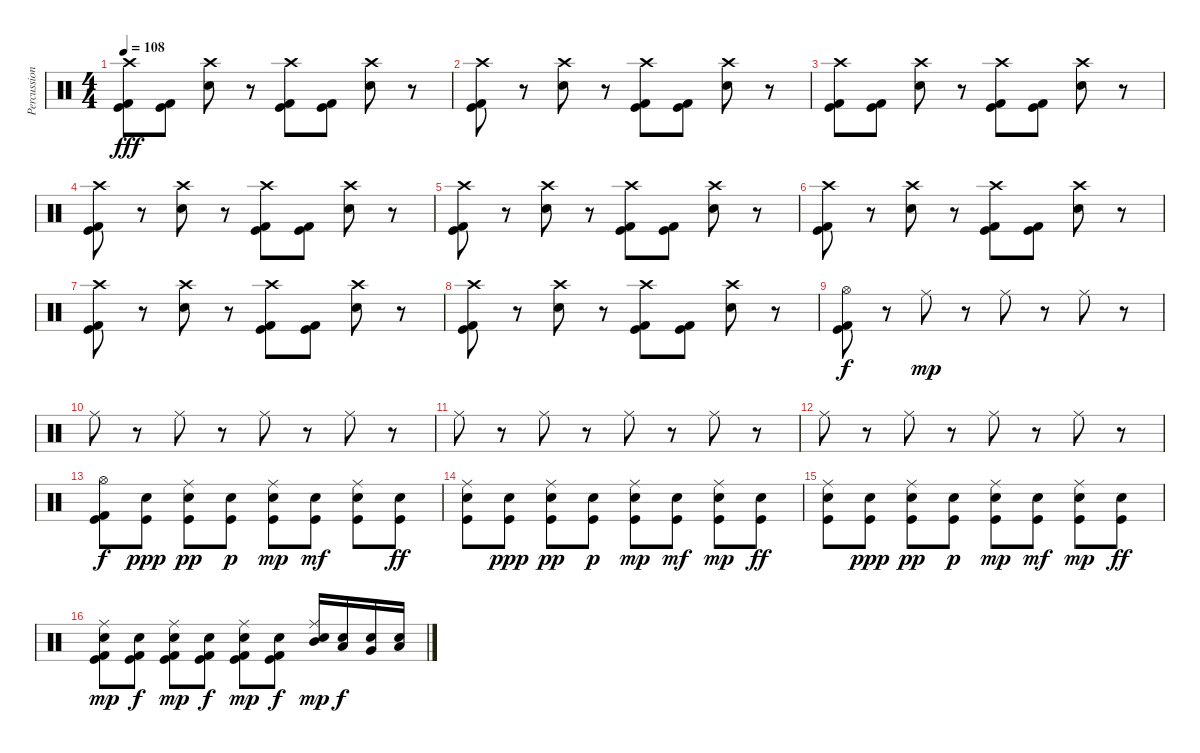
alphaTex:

\track ("Percussion" "Percussion") {instrument percussion}
\staff {score}
\articulation defaults
\ts (4 4)
\tempo 108
\clef neutral
\ks c
("Crash high (hit)" "Kick (hit) 2" "Kick (hit)").8{dy fff} ("Kick (hit) 2" "Kick (hit)").8 ("Crash high (hit)" "Snare (hit) 2").8 r.8 ("Crash high (hit)" "Kick (hit) 2" "Kick (hit)").8 ("Kick (hit) 2" "Kick (hit)").8 ("Crash high (hit)" "Snare (hit) 2").8 r.8 |
("Crash high (hit)" "Kick (hit) 2" "Kick (hit)").8 r.8 ("Crash high (hit)" "Snare (hit) 2").8 r.8 ("Crash high (hit)" "Kick (hit) 2" "Kick (hit)").8 ("Kick (hit) 2" "Kick (hit)").8 ("Crash high (hit)" "Snare (hit) 2").8 r.8 |
("Crash high (hit)" "Kick (hit) 2" "Kick (hit)").8 ("Kick (hit) 2" "Kick (hit)").8 ("Crash high (hit)" "Snare (hit) 2").8 r.8 ("Crash high (hit)" "Kick (hit) 2" "Kick (hit)").8 ("Kick (hit) 2" "Kick (hit)").8 ("Crash high (hit)" "Snare (hit) 2").8 r.8 |
("Crash high (hit)" "Kick (hit) 2" "Kick (hit)").8 r.8 ("Crash high (hit)" "Snare (hit) 2").8 r.8 ("Crash high (hit)" "Kick (hit) 2" "Kick (hit)").8 ("Kick (hit) 2" "Kick (hit)").8 ("Crash high (hit)" "Snare (hit) 2").8 r.8 |
("Crash high (hit)" "Kick (hit) 2" "Kick (hit)").8 r.8 ("Crash high (hit)" "Snare (hit) 2").8 r.8 ("Crash high (hit)" "Kick (hit) 2" "Kick (hit)").8 ("Kick (hit) 2" "Kick (hit)").8 ("Crash high (hit)" "Snare (hit) 2").8 r.8 |
("Crash high (hit)" "Kick (hit) 2" "Kick (hit)").8 r.8 ("Crash high (hit)" "Snare (hit) 2").8 r.8 ("Crash high (hit)" "Kick (hit) 2" "Kick (hit)").8 ("Kick (hit) 2" "Kick (hit)").8 ("Crash high (hit)" "Snare (hit) 2").8 r.8 |
("Crash high (hit)" "Kick (hit) 2" "Kick (hit)").8 r.8 ("Crash high (hit)" "Snare (hit) 2").8 r.8 ("Crash high (hit)" "Kick (hit) 2" "Kick (hit)").8 ("Kick (hit) 2" "Kick (hit)").8 ("Crash high (hit)" "Snare (hit) 2").8 r.8 |
("Crash high (hit)" "Kick (hit) 2" "Kick (hit)").8 r.8 ("Crash high (hit)" "Snare (hit) 2").8 r.8 ("Crash high (hit)" "Kick (hit) 2" "Kick (hit)").8 ("Kick (hit) 2" "Kick (hit)").8 ("Crash high (hit)" "Snare (hit) 2").8 r.8 |
("Hi-Hat (open)" "Kick (hit) 2" "Kick (hit)").8{dy f} r.8 "Ride (middle)".8{dy mp} r.8 "Ride (middle)".8 r.8 "Ride (middle)".8 r.8 |
"Ride (middle)".8 r.8 "Ride (middle)".8 r.8 "Ride (middle)".8 r.8 "Ride (middle)".8 r.8 |
"Ride (middle)".8 r.8 "Ride (middle)".8 r.8 "Ride (middle)".8 r.8 "Ride (middle)".8 r.8 |
"Ride (middle)".8 r.8 "Ride (middle)".8 r.8 "Ride (middle)".8 r.8 "Ride (middle)".8 r.8 |
("Hi-Hat (open)" "Kick (hit) 2" "Kick (hit)").8{dy f} ("Snare (hit) 2" "Kick (hit)").8{dy ppp} ("Ride (middle)" "Snare (hit) 2" "Kick (hit)").8{dy pp} ("Snare (hit) 2" "Kick (hit)").8{dy p} ("Ride (middle)" "Snare (hit) 2" "Kick (hit)").8{dy mp} ("Snare (hit) 2" "Kick (hit)").8{dy mf} ("Ride (middle)" "Snare (hit) 2" "Kick (hit)").8 ("Snare (hit) 2" "Kick (hit)").8{dy ff} |
("Ride (middle)" "Snare (hit) 2" "Kick (hit)").8 ("Snare (hit) 2" "Kick (hit)").8{dy ppp} ("Ride (middle)" "Snare (hit) 2" "Kick (hit)").8{dy pp} ("Snare (hit) 2" "Kick (hit)").8{dy p} ("Ride (middle)" "Snare (hit) 2" "Kick (hit)").8{dy mp} ("Snare (hit) 2" "Kick (hit)").8{dy mf} ("Ride (middle)" "Snare (hit) 2" "Kick (hit)").8{dy mp} ("Snare (hit) 2" "Kick (hit)").8{dy ff} |
("Ride (middle)" "Snare (hit) 2" "Kick (hit)").8 ("Snare (hit) 2" "Kick (hit)").8{dy ppp} ("Ride (middle)" "Snare (hit) 2" "Kick (hit)").8{dy pp} ("Snare (hit) 2" "Kick (hit)").8{dy p} ("Ride (middle)" "Snare (hit) 2" "Kick (hit)").8{dy mp} ("Snare (hit) 2" "Kick (hit)").8{dy mf} ("Ride (middle)" "Snare (hit) 2" "Kick (hit)").8{dy mp} ("Snare (hit) 2" "Kick (hit)").8{dy ff} |
("Ride (middle)" "Snare (hit) 2" "Kick (hit) 2" "Kick (hit)").8{dy mp} ("Snare (hit) 2" "Kick (hit) 2" "Kick (hit)").8{dy f} ("Ride (middle)" "Snare (hit) 2" "Kick (hit) 2" "Kick (hit)").8{dy mp} ("Snare (hit) 2" "Kick (hit) 2" "Kick (hit)").8{dy f} ("Ride (middle)" "Snare (hit) 2" "Kick (hit) 2" "Kick (hit)").8{dy mp} ("Snare (hit) 2" "Kick (hit) 2" "Kick (hit)").8{dy f} ("Ride (middle)" "Snare (hit) 2" "Mid Tom (hit)").16{dy mp} ("Snare (hit) 2" "Low Tom (hit)").16{dy f} ("Snare (hit) 2" "Very Low Tom (hit)").16 ("Snare (hit) 2" "Low Floor Tom (hit)").16
